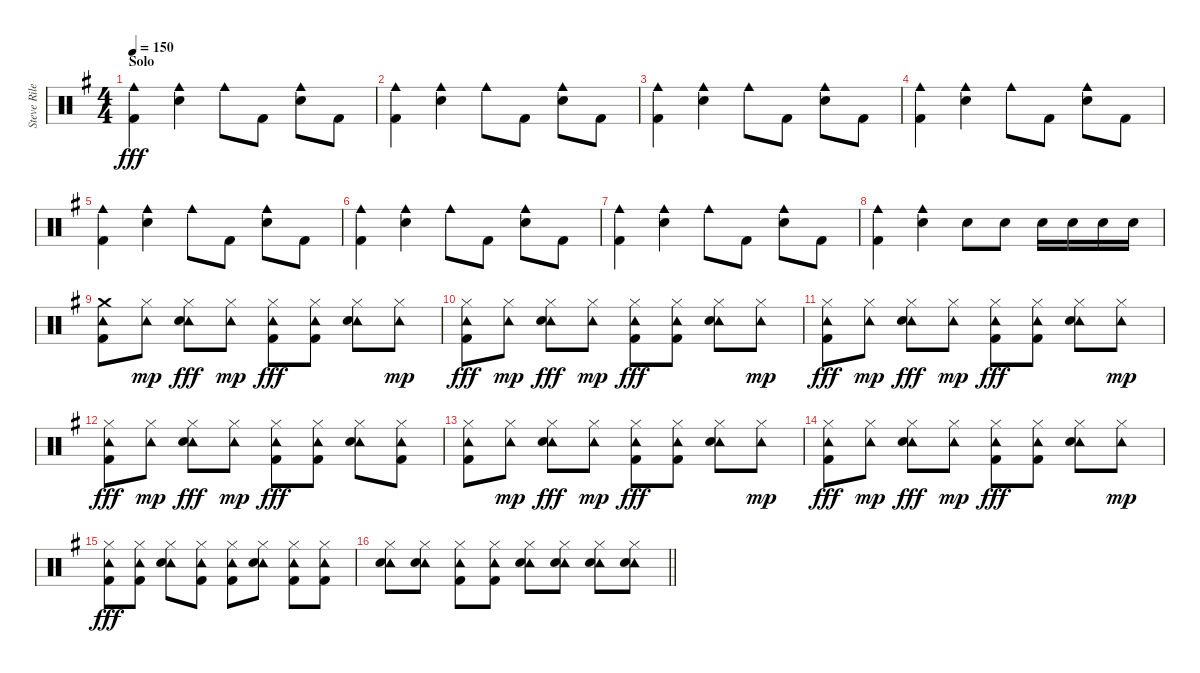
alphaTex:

\track ("Steve Riley - Drums" "Steve Rile") {instrument percussion}
\staff {score}
\articulation defaults
\ts (4 4)
\section ("" "Solo")
\tempo 150
\clef neutral
\ks g
("Cowbell medium (hit)" "Kick (hit) 2").4{dy fff} ("Cowbell medium (hit)" "Electric Snare (hit)").4 "Cowbell medium (hit)".8 "Kick (hit) 2".8 ("Cowbell medium (hit)" "Electric Snare (hit)").8 "Kick (hit) 2".8 |
("Cowbell medium (hit)" "Kick (hit) 2").4 ("Cowbell medium (hit)" "Electric Snare (hit)").4 "Cowbell medium (hit)".8 "Kick (hit) 2".8 ("Cowbell medium (hit)" "Electric Snare (hit)").8 "Kick (hit) 2".8 |
("Cowbell medium (hit)" "Kick (hit) 2").4 ("Cowbell medium (hit)" "Electric Snare (hit)").4 "Cowbell medium (hit)".8 "Kick (hit) 2".8 ("Cowbell medium (hit)" "Electric Snare (hit)").8 "Kick (hit) 2".8 |
("Cowbell medium (hit)" "Kick (hit) 2").4 ("Cowbell medium (hit)" "Electric Snare (hit)").4 "Cowbell medium (hit)".8 "Kick (hit) 2".8 ("Cowbell medium (hit)" "Electric Snare (hit)").8 "Kick (hit) 2".8 |
("Cowbell medium (hit)" "Kick (hit) 2").4 ("Cowbell medium (hit)" "Electric Snare (hit)").4 "Cowbell medium (hit)".8 "Kick (hit) 2".8 ("Cowbell medium (hit)" "Electric Snare (hit)").8 "Kick (hit) 2".8 |
("Cowbell medium (hit)" "Kick (hit) 2").4 ("Cowbell medium (hit)" "Electric Snare (hit)").4 "Cowbell medium (hit)".8 "Kick (hit) 2".8 ("Cowbell medium (hit)" "Electric Snare (hit)").8 "Kick (hit) 2".8 |
("Cowbell medium (hit)" "Kick (hit) 2").4 ("Cowbell medium (hit)" "Electric Snare (hit)").4 "Cowbell medium (hit)".8 "Kick (hit) 2".8 ("Cowbell medium (hit)" "Electric Snare (hit)").8 "Kick (hit) 2".8 |
("Cowbell medium (hit)" "Kick (hit) 2").4 ("Cowbell medium (hit)" "Electric Snare (hit)").4 "Electric Snare (hit)".8 "Electric Snare (hit)".8 "Electric Snare (hit)".16 "Electric Snare (hit)".16 "Electric Snare (hit)".16 "Electric Snare (hit)".16 |
("Crash medium (hit)" "Tambourine (hit)" "Kick (hit) 2").8 ("Hi-Hat (closed)" "Tambourine (hit)").8{dy mp} ("Hi-Hat (closed)" "Tambourine (hit)" "Electric Snare (hit)").8{dy fff} ("Hi-Hat (closed)" "Tambourine (hit)").8{dy mp} ("Hi-Hat (closed)" "Tambourine (hit)" "Kick (hit) 2").8{dy fff} ("Hi-Hat (closed)" "Tambourine (hit)" "Kick (hit) 2").8 ("Hi-Hat (closed)" "Tambourine (hit)" "Electric Snare (hit)").8 ("Hi-Hat (closed)" "Tambourine (hit)").8{dy mp} |
("Hi-Hat (closed)" "Tambourine (hit)" "Kick (hit) 2").8{dy fff} ("Hi-Hat (closed)" "Tambourine (hit)").8{dy mp} ("Hi-Hat (closed)" "Tambourine (hit)" "Electric Snare (hit)").8{dy fff} ("Hi-Hat (closed)" "Tambourine (hit)").8{dy mp} ("Hi-Hat (closed)" "Tambourine (hit)" "Kick (hit) 2").8{dy fff} ("Hi-Hat (closed)" "Tambourine (hit)" "Kick (hit) 2").8 ("Hi-Hat (closed)" "Tambourine (hit)" "Electric Snare (hit)").8 ("Hi-Hat (closed)" "Tambourine (hit)").8{dy mp} |
("Hi-Hat (closed)" "Tambourine (hit)" "Kick (hit) 2").8{dy fff} ("Hi-Hat (closed)" "Tambourine (hit)").8{dy mp} ("Hi-Hat (closed)" "Tambourine (hit)" "Electric Snare (hit)").8{dy fff} ("Hi-Hat (closed)" "Tambourine (hit)").8{dy mp} ("Hi-Hat (closed)" "Tambourine (hit)" "Kick (hit) 2").8{dy fff} ("Hi-Hat (closed)" "Tambourine (hit)" "Kick (hit) 2").8 ("Hi-Hat (closed)" "Tambourine (hit)" "Electric Snare (hit)").8 ("Hi-Hat (closed)" "Tambourine (hit)").8{dy mp} |
("Hi-Hat (closed)" "Tambourine (hit)" "Kick (hit) 2").8{dy fff} ("Hi-Hat (closed)" "Tambourine (hit)").8{dy mp} ("Hi-Hat (closed)" "Tambourine (hit)" "Electric Snare (hit)").8{dy fff} ("Hi-Hat (closed)" "Tambourine (hit)").8{dy mp} ("Hi-Hat (closed)" "Tambourine (hit)" "Kick (hit) 2").8{dy fff} ("Hi-Hat (closed)" "Tambourine (hit)" "Kick (hit) 2").8 ("Hi-Hat (closed)" "Tambourine (hit)" "Electric Snare (hit)").8 ("Hi-Hat (closed)" "Tambourine (hit)" "Kick (hit) 2").8 |
("Hi-Hat (closed)" "Tambourine (hit)" "Kick (hit) 2").8 ("Hi-Hat (closed)" "Tambourine (hit)").8{dy mp} ("Hi-Hat (closed)" "Tambourine (hit)" "Electric Snare (hit)").8{dy fff} ("Hi-Hat (closed)" "Tambourine (hit)").8{dy mp} ("Hi-Hat (closed)" "Tambourine (hit)" "Kick (hit) 2").8{dy fff} ("Hi-Hat (closed)" "Tambourine (hit)" "Kick (hit) 2").8 ("Hi-Hat (closed)" "Tambourine (hit)" "Electric Snare (hit)").8 ("Hi-Hat (closed)" "Tambourine (hit)").8{dy mp} |
("Hi-Hat (closed)" "Tambourine (hit)" "Kick (hit) 2").8{dy fff} ("Hi-Hat (closed)" "Tambourine (hit)").8{dy mp} ("Hi-Hat (closed)" "Tambourine (hit)" "Electric Snare (hit)").8{dy fff} ("Hi-Hat (closed)" "Tambourine (hit)").8{dy mp} ("Hi-Hat (closed)" "Tambourine (hit)" "Kick (hit) 2").8{dy fff} ("Hi-Hat (closed)" "Tambourine (hit)" "Kick (hit) 2").8 ("Hi-Hat (closed)" "Tambourine (hit)" "Electric Snare (hit)").8 ("Hi-Hat (closed)" "Tambourine (hit)").8{dy mp} |
("Hi-Hat (closed)" "Tambourine (hit)" "Kick (hit) 2").8{dy fff} ("Hi-Hat (closed)" "Tambourine (hit)" "Kick (hit) 2").8 ("Hi-Hat (closed)" "Tambourine (hit)" "Electric Snare (hit)").8 ("Hi-Hat (closed)" "Tambourine (hit)" "Kick (hit) 2").8 ("Hi-Hat (closed)" "Tambourine (hit)" "Kick (hit) 2").8 ("Hi-Hat (closed)" "Tambourine (hit)" "Electric Snare (hit)").8 ("Hi-Hat (closed)" "Tambourine (hit)" "Kick (hit) 2").8 ("Hi-Hat (closed)" "Tambourine (hit)" "Kick (hit) 2").8 |
\barLineRight lightlight
("Hi-Hat (closed)" "Tambourine (hit)" "Electric Snare (hit)").8 ("Hi-Hat (closed)" "Tambourine (hit)" "Electric Snare (hit)").8 ("Hi-Hat (closed)" "Tambourine (hit)" "Kick (hit) 2").8 ("Hi-Hat (closed)" "Tambourine (hit)" "Kick (hit) 2").8 ("Hi-Hat (closed)" "Tambourine (hit)" "Electric Snare (hit)").8 ("Hi-Hat (closed)" "Tambourine (hit)" "Electric Snare (hit)").8 ("Hi-Hat (closed)" "Tambourine (hit)" "Electric Snare (hit)").8 ("Hi-Hat (closed)" "Tambourine (hit)" "Electric Snare (hit)").8
